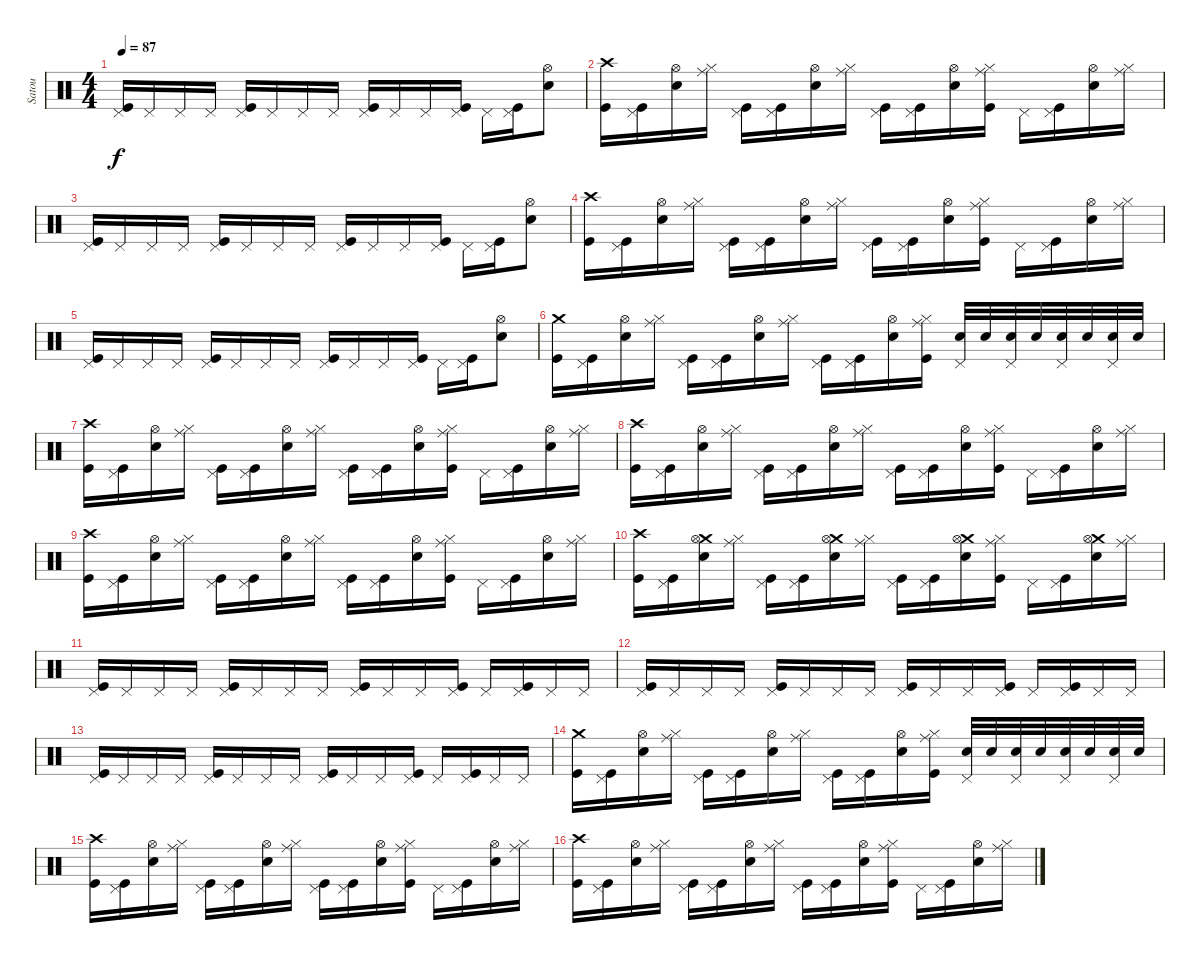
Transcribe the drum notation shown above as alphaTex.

\track ("Satou" "Satou") {instrument percussion}
\staff {score}
\articulation defaults
\ts (4 4)
\tempo 87
\clef neutral
\ks c
("Pedal Hi-Hat (hit)" "Kick (hit)").16{dy f} "Pedal Hi-Hat (hit)".16 "Pedal Hi-Hat (hit)".16 "Pedal Hi-Hat (hit)".16 ("Pedal Hi-Hat (hit)" "Kick (hit)").16 "Pedal Hi-Hat (hit)".16 "Pedal Hi-Hat (hit)".16 "Pedal Hi-Hat (hit)".16 ("Pedal Hi-Hat (hit)" "Kick (hit)").16 "Pedal Hi-Hat (hit)".16 "Pedal Hi-Hat (hit)".16 ("Pedal Hi-Hat (hit)" "Kick (hit)").16 "Pedal Hi-Hat (hit)".16 ("Pedal Hi-Hat (hit)" "Kick (hit)").16 ("Hi-Hat (open)" "Snare (hit) 2").8 |
("Crash high (hit)" "Kick (hit)").16 ("Pedal Hi-Hat (hit)" "Kick (hit)").16 ("Hi-Hat (open)" "Snare (hit) 2").16 ("Ride (middle)" "Hi-Hat (closed)").16 ("Pedal Hi-Hat (hit)" "Kick (hit)").16 ("Pedal Hi-Hat (hit)" "Kick (hit)").16 ("Hi-Hat (open)" "Snare (hit) 2").16 ("Ride (middle)" "Hi-Hat (closed)").16 ("Pedal Hi-Hat (hit)" "Kick (hit)").16 ("Pedal Hi-Hat (hit)" "Kick (hit)").16 ("Hi-Hat (open)" "Snare (hit) 2").16 ("Ride (middle)" "Hi-Hat (closed)" "Kick (hit)").16 "Pedal Hi-Hat (hit)".16 ("Pedal Hi-Hat (hit)" "Kick (hit)").16 ("Hi-Hat (open)" "Snare (hit) 2").16 ("Ride (middle)" "Hi-Hat (closed)").16 |
("Pedal Hi-Hat (hit)" "Kick (hit)").16 "Pedal Hi-Hat (hit)".16 "Pedal Hi-Hat (hit)".16 "Pedal Hi-Hat (hit)".16 ("Pedal Hi-Hat (hit)" "Kick (hit)").16 "Pedal Hi-Hat (hit)".16 "Pedal Hi-Hat (hit)".16 "Pedal Hi-Hat (hit)".16 ("Pedal Hi-Hat (hit)" "Kick (hit)").16 "Pedal Hi-Hat (hit)".16 "Pedal Hi-Hat (hit)".16 ("Pedal Hi-Hat (hit)" "Kick (hit)").16 "Pedal Hi-Hat (hit)".16 ("Pedal Hi-Hat (hit)" "Kick (hit)").16 ("Hi-Hat (open)" "Snare (hit) 2").8 |
("Crash high (hit)" "Kick (hit)").16 ("Pedal Hi-Hat (hit)" "Kick (hit)").16 ("Hi-Hat (open)" "Snare (hit) 2").16 ("Ride (middle)" "Hi-Hat (closed)").16 ("Pedal Hi-Hat (hit)" "Kick (hit)").16 ("Pedal Hi-Hat (hit)" "Kick (hit)").16 ("Hi-Hat (open)" "Snare (hit) 2").16 ("Ride (middle)" "Hi-Hat (closed)").16 ("Pedal Hi-Hat (hit)" "Kick (hit)").16 ("Pedal Hi-Hat (hit)" "Kick (hit)").16 ("Hi-Hat (open)" "Snare (hit) 2").16 ("Ride (middle)" "Hi-Hat (closed)" "Kick (hit)").16 "Pedal Hi-Hat (hit)".16 ("Pedal Hi-Hat (hit)" "Kick (hit)").16 ("Hi-Hat (open)" "Snare (hit) 2").16 ("Ride (middle)" "Hi-Hat (closed)").16 |
("Pedal Hi-Hat (hit)" "Kick (hit)").16 "Pedal Hi-Hat (hit)".16 "Pedal Hi-Hat (hit)".16 "Pedal Hi-Hat (hit)".16 ("Pedal Hi-Hat (hit)" "Kick (hit)").16 "Pedal Hi-Hat (hit)".16 "Pedal Hi-Hat (hit)".16 "Pedal Hi-Hat (hit)".16 ("Pedal Hi-Hat (hit)" "Kick (hit)").16 "Pedal Hi-Hat (hit)".16 "Pedal Hi-Hat (hit)".16 ("Pedal Hi-Hat (hit)" "Kick (hit)").16 "Pedal Hi-Hat (hit)".16 ("Pedal Hi-Hat (hit)" "Kick (hit)").16 ("Hi-Hat (open)" "Snare (hit) 2").8 |
("Crash medium (hit)" "Kick (hit)").16 ("Pedal Hi-Hat (hit)" "Kick (hit)").16 ("Hi-Hat (open)" "Snare (hit) 2").16 ("Ride (middle)" "Hi-Hat (closed)").16 ("Pedal Hi-Hat (hit)" "Kick (hit)").16 ("Pedal Hi-Hat (hit)" "Kick (hit)").16 ("Hi-Hat (open)" "Snare (hit) 2").16 ("Ride (middle)" "Hi-Hat (closed)").16 ("Pedal Hi-Hat (hit)" "Kick (hit)").16 ("Pedal Hi-Hat (hit)" "Kick (hit)").16 ("Hi-Hat (open)" "Snare (hit) 2").16 ("Ride (middle)" "Hi-Hat (closed)" "Kick (hit)").16 ("Pedal Hi-Hat (hit)" "Snare (hit) 2").32 "Snare (hit) 2".32 ("Pedal Hi-Hat (hit)" "Snare (hit) 2").32 "Snare (hit) 2".32 ("Pedal Hi-Hat (hit)" "Snare (hit) 2").32 "Snare (hit) 2".32 ("Pedal Hi-Hat (hit)" "Snare (hit) 2").32 "Snare (hit) 2".32 |
("Crash high (hit)" "Kick (hit)").16 ("Pedal Hi-Hat (hit)" "Kick (hit)").16 ("Hi-Hat (open)" "Snare (hit) 2").16 ("Ride (middle)" "Hi-Hat (closed)").16 ("Pedal Hi-Hat (hit)" "Kick (hit)").16 ("Pedal Hi-Hat (hit)" "Kick (hit)").16 ("Hi-Hat (open)" "Snare (hit) 2").16 ("Ride (middle)" "Hi-Hat (closed)").16 ("Pedal Hi-Hat (hit)" "Kick (hit)").16 ("Pedal Hi-Hat (hit)" "Kick (hit)").16 ("Hi-Hat (open)" "Snare (hit) 2").16 ("Ride (middle)" "Hi-Hat (closed)" "Kick (hit)").16 "Pedal Hi-Hat (hit)".16 ("Pedal Hi-Hat (hit)" "Kick (hit)").16 ("Hi-Hat (open)" "Snare (hit) 2").16 ("Ride (middle)" "Hi-Hat (closed)").16 |
("Crash high (hit)" "Kick (hit)").16 ("Pedal Hi-Hat (hit)" "Kick (hit)").16 ("Hi-Hat (open)" "Snare (hit) 2").16 ("Ride (middle)" "Hi-Hat (closed)").16 ("Pedal Hi-Hat (hit)" "Kick (hit)").16 ("Pedal Hi-Hat (hit)" "Kick (hit)").16 ("Hi-Hat (open)" "Snare (hit) 2").16 ("Ride (middle)" "Hi-Hat (closed)").16 ("Pedal Hi-Hat (hit)" "Kick (hit)").16 ("Pedal Hi-Hat (hit)" "Kick (hit)").16 ("Hi-Hat (open)" "Snare (hit) 2").16 ("Ride (middle)" "Hi-Hat (closed)" "Kick (hit)").16 "Pedal Hi-Hat (hit)".16 ("Pedal Hi-Hat (hit)" "Kick (hit)").16 ("Hi-Hat (open)" "Snare (hit) 2").16 ("Ride (middle)" "Hi-Hat (closed)").16 |
("Crash high (hit)" "Kick (hit)").16 ("Pedal Hi-Hat (hit)" "Kick (hit)").16 ("Hi-Hat (open)" "Snare (hit) 2").16 ("Ride (middle)" "Hi-Hat (closed)").16 ("Pedal Hi-Hat (hit)" "Kick (hit)").16 ("Pedal Hi-Hat (hit)" "Kick (hit)").16 ("Hi-Hat (open)" "Snare (hit) 2").16 ("Ride (middle)" "Hi-Hat (closed)").16 ("Pedal Hi-Hat (hit)" "Kick (hit)").16 ("Pedal Hi-Hat (hit)" "Kick (hit)").16 ("Hi-Hat (open)" "Snare (hit) 2").16 ("Ride (middle)" "Hi-Hat (closed)" "Kick (hit)").16 "Pedal Hi-Hat (hit)".16 ("Pedal Hi-Hat (hit)" "Kick (hit)").16 ("Hi-Hat (open)" "Snare (hit) 2").16 ("Ride (middle)" "Hi-Hat (closed)").16 |
("Crash high (hit)" "Kick (hit)").16 ("Pedal Hi-Hat (hit)" "Kick (hit)").16 ("Crash medium (hit)" "Hi-Hat (open)" "Snare (hit) 2").16 ("Ride (middle)" "Hi-Hat (closed)").16 ("Pedal Hi-Hat (hit)" "Kick (hit)").16 ("Pedal Hi-Hat (hit)" "Kick (hit)").16 ("Crash medium (hit)" "Hi-Hat (open)" "Snare (hit) 2").16 ("Ride (middle)" "Hi-Hat (closed)").16 ("Pedal Hi-Hat (hit)" "Kick (hit)").16 ("Pedal Hi-Hat (hit)" "Kick (hit)").16 ("Crash medium (hit)" "Hi-Hat (open)" "Snare (hit) 2").16 ("Ride (middle)" "Hi-Hat (closed)" "Kick (hit)").16 "Pedal Hi-Hat (hit)".16 ("Pedal Hi-Hat (hit)" "Kick (hit)").16 ("Crash medium (hit)" "Hi-Hat (open)" "Snare (hit) 2").16 ("Ride (middle)" "Hi-Hat (closed)").16 |
("Pedal Hi-Hat (hit)" "Kick (hit)").16 "Pedal Hi-Hat (hit)".16 "Pedal Hi-Hat (hit)".16 "Pedal Hi-Hat (hit)".16 ("Pedal Hi-Hat (hit)" "Kick (hit)").16 "Pedal Hi-Hat (hit)".16 "Pedal Hi-Hat (hit)".16 "Pedal Hi-Hat (hit)".16 ("Pedal Hi-Hat (hit)" "Kick (hit)").16 "Pedal Hi-Hat (hit)".16 "Pedal Hi-Hat (hit)".16 ("Pedal Hi-Hat (hit)" "Kick (hit)").16 "Pedal Hi-Hat (hit)".16 ("Pedal Hi-Hat (hit)" "Kick (hit)").16 "Pedal Hi-Hat (hit)".16 "Pedal Hi-Hat (hit)".16 |
("Pedal Hi-Hat (hit)" "Kick (hit)").16 "Pedal Hi-Hat (hit)".16 "Pedal Hi-Hat (hit)".16 "Pedal Hi-Hat (hit)".16 ("Pedal Hi-Hat (hit)" "Kick (hit)").16 "Pedal Hi-Hat (hit)".16 "Pedal Hi-Hat (hit)".16 "Pedal Hi-Hat (hit)".16 ("Pedal Hi-Hat (hit)" "Kick (hit)").16 "Pedal Hi-Hat (hit)".16 "Pedal Hi-Hat (hit)".16 ("Pedal Hi-Hat (hit)" "Kick (hit)").16 "Pedal Hi-Hat (hit)".16 ("Pedal Hi-Hat (hit)" "Kick (hit)").16 "Pedal Hi-Hat (hit)".16 "Pedal Hi-Hat (hit)".16 |
("Pedal Hi-Hat (hit)" "Kick (hit)").16 "Pedal Hi-Hat (hit)".16 "Pedal Hi-Hat (hit)".16 "Pedal Hi-Hat (hit)".16 ("Pedal Hi-Hat (hit)" "Kick (hit)").16 "Pedal Hi-Hat (hit)".16 "Pedal Hi-Hat (hit)".16 "Pedal Hi-Hat (hit)".16 ("Pedal Hi-Hat (hit)" "Kick (hit)").16 "Pedal Hi-Hat (hit)".16 "Pedal Hi-Hat (hit)".16 ("Pedal Hi-Hat (hit)" "Kick (hit)").16 "Pedal Hi-Hat (hit)".16 ("Pedal Hi-Hat (hit)" "Kick (hit)").16 "Pedal Hi-Hat (hit)".16 "Pedal Hi-Hat (hit)".16 |
("Crash medium (hit)" "Kick (hit)").16 ("Pedal Hi-Hat (hit)" "Kick (hit)").16 ("Hi-Hat (open)" "Snare (hit) 2").16 ("Ride (middle)" "Hi-Hat (closed)").16 ("Pedal Hi-Hat (hit)" "Kick (hit)").16 ("Pedal Hi-Hat (hit)" "Kick (hit)").16 ("Hi-Hat (open)" "Snare (hit) 2").16 ("Ride (middle)" "Hi-Hat (closed)").16 ("Pedal Hi-Hat (hit)" "Kick (hit)").16 ("Pedal Hi-Hat (hit)" "Kick (hit)").16 ("Hi-Hat (open)" "Snare (hit) 2").16 ("Ride (middle)" "Hi-Hat (closed)" "Kick (hit)").16 ("Pedal Hi-Hat (hit)" "Snare (hit) 2").32 "Snare (hit) 2".32 ("Pedal Hi-Hat (hit)" "Snare (hit) 2").32 "Snare (hit) 2".32 ("Pedal Hi-Hat (hit)" "Snare (hit) 2").32 "Snare (hit) 2".32 ("Pedal Hi-Hat (hit)" "Snare (hit) 2").32 "Snare (hit) 2".32 |
("Crash high (hit)" "Kick (hit)").16 ("Pedal Hi-Hat (hit)" "Kick (hit)").16 ("Hi-Hat (open)" "Snare (hit) 2").16 ("Ride (middle)" "Hi-Hat (closed)").16 ("Pedal Hi-Hat (hit)" "Kick (hit)").16 ("Pedal Hi-Hat (hit)" "Kick (hit)").16 ("Hi-Hat (open)" "Snare (hit) 2").16 ("Ride (middle)" "Hi-Hat (closed)").16 ("Pedal Hi-Hat (hit)" "Kick (hit)").16 ("Pedal Hi-Hat (hit)" "Kick (hit)").16 ("Hi-Hat (open)" "Snare (hit) 2").16 ("Ride (middle)" "Hi-Hat (closed)" "Kick (hit)").16 "Pedal Hi-Hat (hit)".16 ("Pedal Hi-Hat (hit)" "Kick (hit)").16 ("Hi-Hat (open)" "Snare (hit) 2").16 ("Ride (middle)" "Hi-Hat (closed)").16 |
("Crash high (hit)" "Kick (hit)").16 ("Pedal Hi-Hat (hit)" "Kick (hit)").16 ("Hi-Hat (open)" "Snare (hit) 2").16 ("Ride (middle)" "Hi-Hat (closed)").16 ("Pedal Hi-Hat (hit)" "Kick (hit)").16 ("Pedal Hi-Hat (hit)" "Kick (hit)").16 ("Hi-Hat (open)" "Snare (hit) 2").16 ("Ride (middle)" "Hi-Hat (closed)").16 ("Pedal Hi-Hat (hit)" "Kick (hit)").16 ("Pedal Hi-Hat (hit)" "Kick (hit)").16 ("Hi-Hat (open)" "Snare (hit) 2").16 ("Ride (middle)" "Hi-Hat (closed)" "Kick (hit)").16 "Pedal Hi-Hat (hit)".16 ("Pedal Hi-Hat (hit)" "Kick (hit)").16 ("Hi-Hat (open)" "Snare (hit) 2").16 ("Ride (middle)" "Hi-Hat (closed)").16
